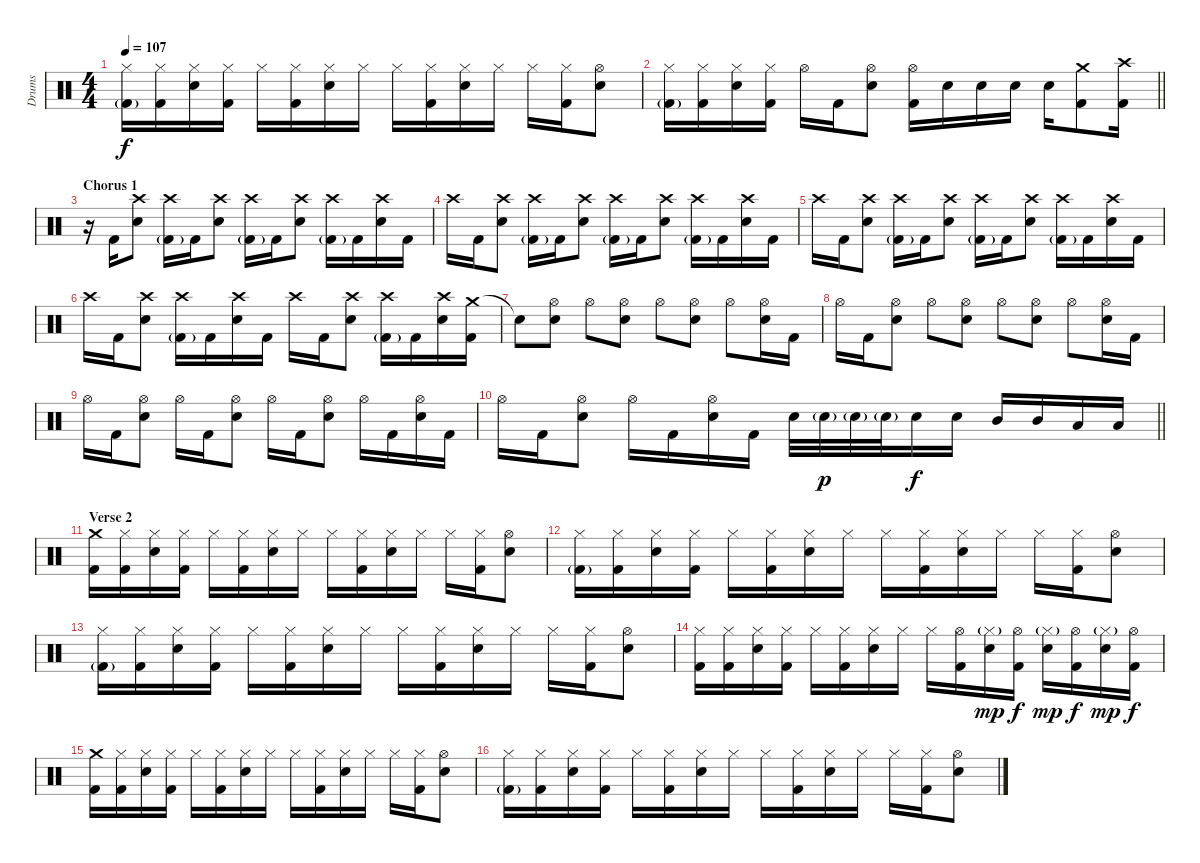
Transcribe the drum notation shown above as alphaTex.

\track ("Drums" "Drums") {instrument percussion}
\staff {score}
\articulation defaults
\ts (4 4)
\tempo 107
\clef neutral
\ks c
("Hi-Hat (closed)" "Kick (hit) 2"{g}).16{dy f} ("Hi-Hat (closed)" "Kick (hit) 2").16 ("Hi-Hat (closed)" "Electric Snare (hit)").16 ("Hi-Hat (closed)" "Kick (hit) 2").16 "Hi-Hat (closed)".16 ("Hi-Hat (closed)" "Kick (hit) 2").16 ("Hi-Hat (closed)" "Electric Snare (hit)").16 "Hi-Hat (closed)".16 "Hi-Hat (closed)".16 ("Hi-Hat (closed)" "Kick (hit) 2").16 ("Hi-Hat (closed)" "Electric Snare (hit)").16 "Hi-Hat (closed)".16 "Hi-Hat (closed)".16 ("Hi-Hat (closed)" "Kick (hit) 2").16 ("Hi-Hat (open)" "Electric Snare (hit)").8 |
\barLineRight lightlight
("Hi-Hat (closed)" "Kick (hit) 2"{g}).16 ("Hi-Hat (closed)" "Kick (hit) 2").16 ("Hi-Hat (closed)" "Electric Snare (hit)").16 ("Hi-Hat (closed)" "Kick (hit) 2").16 "Hi-Hat (open)".16 "Kick (hit) 2".16 ("Hi-Hat (open)" "Electric Snare (hit)").8 ("Hi-Hat (open)" "Kick (hit) 2").16 "Electric Snare (hit)".16 "Electric Snare (hit)".16 "Electric Snare (hit)".16 "Electric Snare (hit)".16 ("Crash medium (hit)" "Kick (hit) 2").8 ("Crash high (hit)" "Kick (hit) 2").16 |
\section ("" "Chorus 1")
r.16 "Kick (hit) 2".16 ("Crash high (hit)" "Electric Snare (hit)").8 ("Crash high (hit)" "Kick (hit) 2"{g}).16 "Kick (hit) 2".16 ("Crash high (hit)" "Electric Snare (hit)").8 ("Crash high (hit)" "Kick (hit) 2"{g}).16 "Kick (hit) 2".16 ("Crash high (hit)" "Electric Snare (hit)").8 ("Crash high (hit)" "Kick (hit) 2"{g}).16 "Kick (hit) 2".16 ("Crash high (hit)" "Electric Snare (hit)").16 "Kick (hit) 2".16 |
"Crash high (hit)".16 "Kick (hit) 2".16 ("Crash high (hit)" "Electric Snare (hit)").8 ("Crash high (hit)" "Kick (hit) 2"{g}).16 "Kick (hit) 2".16 ("Crash high (hit)" "Electric Snare (hit)").8 ("Crash high (hit)" "Kick (hit) 2"{g}).16 "Kick (hit) 2".16 ("Crash high (hit)" "Electric Snare (hit)").8 ("Crash high (hit)" "Kick (hit) 2"{g}).16 "Kick (hit) 2".16 ("Crash high (hit)" "Electric Snare (hit)").16 "Kick (hit) 2".16 |
"Crash high (hit)".16 "Kick (hit) 2".16 ("Crash high (hit)" "Electric Snare (hit)").8 ("Crash high (hit)" "Kick (hit) 2"{g}).16 "Kick (hit) 2".16 ("Crash high (hit)" "Electric Snare (hit)").8 ("Crash high (hit)" "Kick (hit) 2"{g}).16 "Kick (hit) 2".16 ("Crash high (hit)" "Electric Snare (hit)").8 ("Crash high (hit)" "Kick (hit) 2"{g}).16 "Kick (hit) 2".16 ("Crash high (hit)" "Electric Snare (hit)").16 "Kick (hit) 2".16 |
"Crash high (hit)".16 "Kick (hit) 2".16 ("Crash high (hit)" "Electric Snare (hit)").8 ("Crash high (hit)" "Kick (hit) 2"{g}).16 "Kick (hit) 2".16 ("Crash high (hit)" "Electric Snare (hit)").16 "Kick (hit) 2".16 "Crash high (hit)".16 "Kick (hit) 2".16 ("Crash high (hit)" "Electric Snare (hit)").8 ("Crash high (hit)" "Kick (hit) 2"{g}).16 "Kick (hit) 2".16 ("Crash high (hit)" "Electric Snare (hit)").16 ("Crash medium (hit)" "Kick (hit) 2").16 |
"Snare (hit)"{t}.8 ("Hi-Hat (open)" "Electric Snare (hit)").8 "Hi-Hat (open)".8 ("Hi-Hat (open)" "Electric Snare (hit)").8 "Hi-Hat (open)".8 ("Hi-Hat (open)" "Electric Snare (hit)").8 "Hi-Hat (open)".8 ("Hi-Hat (open)" "Electric Snare (hit)").16 "Kick (hit) 2".16 |
"Hi-Hat (open)".16 "Kick (hit) 2".16 ("Hi-Hat (open)" "Electric Snare (hit)").8 "Hi-Hat (open)".8 ("Hi-Hat (open)" "Electric Snare (hit)").8 "Hi-Hat (open)".8 ("Hi-Hat (open)" "Electric Snare (hit)").8 "Hi-Hat (open)".8 ("Hi-Hat (open)" "Electric Snare (hit)").16 "Kick (hit) 2".16 |
"Hi-Hat (open)".16 "Kick (hit) 2".16 ("Hi-Hat (open)" "Electric Snare (hit)").8 "Hi-Hat (open)".16 "Kick (hit) 2".16 ("Hi-Hat (open)" "Electric Snare (hit)").8 "Hi-Hat (open)".16 "Kick (hit) 2".16 ("Hi-Hat (open)" "Electric Snare (hit)").8 "Hi-Hat (open)".16 "Kick (hit) 2".16 ("Hi-Hat (open)" "Electric Snare (hit)").16 "Kick (hit) 2".16 |
\barLineRight lightlight "Hi-Hat (open)".16 "Kick (hit) 2".16
("Hi-Hat (open)" "Electric Snare (hit)").8 "Hi-Hat (open)".16 "Kick (hit) 2".16 ("Hi-Hat (open)" "Electric Snare (hit)").16 "Kick (hit) 2".16 "Electric Snare (hit)".32 "Electric Snare (hit)"{g}.32{dy p} "Electric Snare (hit)"{g}.32 "Electric Snare (hit)"{g}.32 "Electric Snare (hit)".16{dy f} "Electric Snare (hit)".16 "Mid Tom (hit)".16 "Mid Tom (hit)".16 "Low Tom (hit)".16 "Low Tom (hit)".16 |
\section ("" "Verse 2")
("Crash medium (hit)" "Kick (hit) 2").16 ("Hi-Hat (closed)" "Kick (hit) 2").16 ("Hi-Hat (closed)" "Electric Snare (hit)").16 ("Hi-Hat (closed)" "Kick (hit) 2").16 "Hi-Hat (closed)".16 ("Hi-Hat (closed)" "Kick (hit) 2").16 ("Hi-Hat (closed)" "Electric Snare (hit)").16 "Hi-Hat (closed)".16 "Hi-Hat (closed)".16 ("Hi-Hat (closed)" "Kick (hit) 2").16 ("Hi-Hat (closed)" "Electric Snare (hit)").16 "Hi-Hat (closed)".16 "Hi-Hat (closed)".16 ("Hi-Hat (closed)" "Kick (hit) 2").16 ("Hi-Hat (open)" "Electric Snare (hit)").8 |
("Hi-Hat (closed)" "Kick (hit) 2"{g}).16 ("Hi-Hat (closed)" "Kick (hit) 2").16 ("Hi-Hat (closed)" "Electric Snare (hit)").16 ("Hi-Hat (closed)" "Kick (hit) 2").16 "Hi-Hat (closed)".16 ("Hi-Hat (closed)" "Kick (hit) 2").16 ("Hi-Hat (closed)" "Electric Snare (hit)").16 "Hi-Hat (closed)".16 "Hi-Hat (closed)".16 ("Hi-Hat (closed)" "Kick (hit) 2").16 ("Hi-Hat (closed)" "Electric Snare (hit)").16 "Hi-Hat (closed)".16 "Hi-Hat (closed)".16 ("Hi-Hat (closed)" "Kick (hit) 2").16 ("Hi-Hat (open)" "Electric Snare (hit)").8 |
("Hi-Hat (closed)" "Kick (hit) 2"{g}).16 ("Hi-Hat (closed)" "Kick (hit) 2").16 ("Hi-Hat (closed)" "Electric Snare (hit)").16 ("Hi-Hat (closed)" "Kick (hit) 2").16 "Hi-Hat (closed)".16 ("Hi-Hat (closed)" "Kick (hit) 2").16 ("Hi-Hat (closed)" "Electric Snare (hit)").16 "Hi-Hat (closed)".16 "Hi-Hat (closed)".16 ("Hi-Hat (closed)" "Kick (hit) 2").16 ("Hi-Hat (closed)" "Electric Snare (hit)").16 "Hi-Hat (closed)".16 "Hi-Hat (closed)".16 ("Hi-Hat (closed)" "Kick (hit) 2").16 ("Hi-Hat (open)" "Electric Snare (hit)").8 |
("Hi-Hat (closed)" "Kick (hit) 2").16 ("Hi-Hat (closed)" "Kick (hit) 2").16 ("Hi-Hat (closed)" "Electric Snare (hit)").16 ("Hi-Hat (closed)" "Kick (hit) 2").16 "Hi-Hat (closed)".16 ("Hi-Hat (closed)" "Kick (hit) 2").16 ("Hi-Hat (closed)" "Electric Snare (hit)").16 "Hi-Hat (closed)".16 "Hi-Hat (closed)".16 ("Hi-Hat (open)" "Kick (hit) 2").16 ("Hi-Hat (closed)"{g} "Electric Snare (hit)").16{dy mp} ("Hi-Hat (open)" "Kick (hit) 2").16{dy f} ("Hi-Hat (closed)"{g} "Electric Snare (hit)").16{dy mp} ("Hi-Hat (open)" "Kick (hit) 2").16{dy f} ("Hi-Hat (closed)"{g} "Electric Snare (hit)").16{dy mp} ("Hi-Hat (open)" "Kick (hit) 2").16{dy f} |
("Crash medium (hit)" "Kick (hit) 2").16 ("Hi-Hat (closed)" "Kick (hit) 2").16 ("Hi-Hat (closed)" "Electric Snare (hit)").16 ("Hi-Hat (closed)" "Kick (hit) 2").16 "Hi-Hat (closed)".16 ("Hi-Hat (closed)" "Kick (hit) 2").16 ("Hi-Hat (closed)" "Electric Snare (hit)").16 "Hi-Hat (closed)".16 "Hi-Hat (closed)".16 ("Hi-Hat (closed)" "Kick (hit) 2").16 ("Hi-Hat (closed)" "Electric Snare (hit)").16 "Hi-Hat (closed)".16 "Hi-Hat (closed)".16 ("Hi-Hat (closed)" "Kick (hit) 2").16 ("Hi-Hat (open)" "Electric Snare (hit)").8 |
("Hi-Hat (closed)" "Kick (hit) 2"{g}).16 ("Hi-Hat (closed)" "Kick (hit) 2").16 ("Hi-Hat (closed)" "Electric Snare (hit)").16 ("Hi-Hat (closed)" "Kick (hit) 2").16 "Hi-Hat (closed)".16 ("Hi-Hat (closed)" "Kick (hit) 2").16 ("Hi-Hat (closed)" "Electric Snare (hit)").16 "Hi-Hat (closed)".16 "Hi-Hat (closed)".16 ("Hi-Hat (closed)" "Kick (hit) 2").16 ("Hi-Hat (closed)" "Electric Snare (hit)").16 "Hi-Hat (closed)".16 "Hi-Hat (closed)".16 ("Hi-Hat (closed)" "Kick (hit) 2").16 ("Hi-Hat (open)" "Electric Snare (hit)").8
